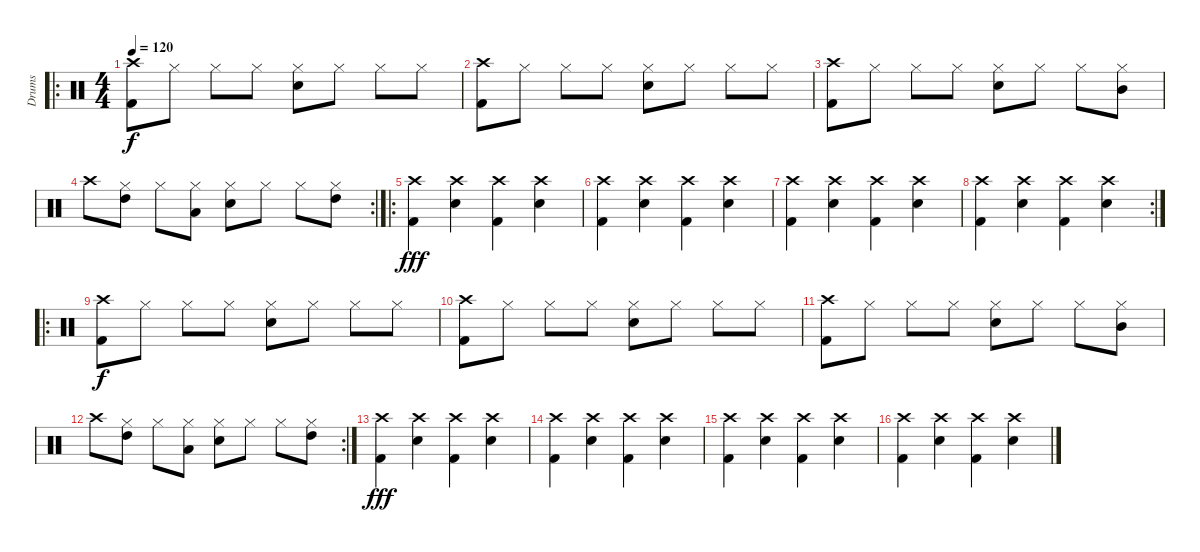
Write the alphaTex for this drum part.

\track ("Drums" "Drums") {instrument percussion}
\staff {score}
\articulation defaults
\ro
\ts (4 4)
\tempo 120
\clef neutral
\ks c
("Crash high (hit)" "Kick (hit) 2").8{dy f} "Hi-Hat (closed)".8 "Hi-Hat (closed)".8 "Hi-Hat (closed)".8 ("Hi-Hat (closed)" "Electric Snare (hit)").8 "Hi-Hat (closed)".8 "Hi-Hat (closed)".8 "Hi-Hat (closed)".8 |
("Crash high (hit)" "Kick (hit) 2").8 "Hi-Hat (closed)".8 "Hi-Hat (closed)".8 "Hi-Hat (closed)".8 ("Hi-Hat (closed)" "Electric Snare (hit)").8 "Hi-Hat (closed)".8 "Hi-Hat (closed)".8 "Hi-Hat (closed)".8 |
("Crash high (hit)" "Kick (hit) 2").8 "Hi-Hat (closed)".8 "Hi-Hat (closed)".8 "Hi-Hat (closed)".8 ("Hi-Hat (closed)" "Electric Snare (hit)").8 "Hi-Hat (closed)".8 "Hi-Hat (closed)".8 ("Hi-Hat (closed)" "Mid Tom (hit)").8 |
\rc 2 "Crash high (hit)".8
("Hi-Hat (closed)" "High Tom (hit)").8 "Hi-Hat (closed)".8 ("Hi-Hat (closed)" "Low Tom (hit)").8 ("Hi-Hat (closed)" "Electric Snare (hit)").8 "Hi-Hat (closed)".8 "Hi-Hat (closed)".8 ("Hi-Hat (closed)" "High Tom (hit)").8 |
\ro
("Crash high (hit)" "Kick (hit) 2").4{dy fff volume 16} ("Crash high (hit)" "Electric Snare (hit)").4 ("Crash high (hit)" "Kick (hit) 2").4 ("Crash high (hit)" "Electric Snare (hit)").4 |
("Crash high (hit)" "Kick (hit) 2").4 ("Crash high (hit)" "Electric Snare (hit)").4 ("Crash high (hit)" "Kick (hit) 2").4 ("Crash high (hit)" "Electric Snare (hit)").4 |
("Crash high (hit)" "Kick (hit) 2").4 ("Crash high (hit)" "Electric Snare (hit)").4 ("Crash high (hit)" "Kick (hit) 2").4 ("Crash high (hit)" "Electric Snare (hit)").4 |
\rc 2
("Crash high (hit)" "Kick (hit) 2").4 ("Crash high (hit)" "Electric Snare (hit)").4 ("Crash high (hit)" "Kick (hit) 2").4 ("Crash high (hit)" "Electric Snare (hit)").4 |
\ro
("Crash high (hit)" "Kick (hit) 2").8{dy f} "Hi-Hat (closed)".8 "Hi-Hat (closed)".8 "Hi-Hat (closed)".8 ("Hi-Hat (closed)" "Electric Snare (hit)").8 "Hi-Hat (closed)".8 "Hi-Hat (closed)".8 "Hi-Hat (closed)".8 |
("Crash high (hit)" "Kick (hit) 2").8 "Hi-Hat (closed)".8 "Hi-Hat (closed)".8 "Hi-Hat (closed)".8 ("Hi-Hat (closed)" "Electric Snare (hit)").8 "Hi-Hat (closed)".8 "Hi-Hat (closed)".8 "Hi-Hat (closed)".8 |
("Crash high (hit)" "Kick (hit) 2").8 "Hi-Hat (closed)".8 "Hi-Hat (closed)".8 "Hi-Hat (closed)".8 ("Hi-Hat (closed)" "Electric Snare (hit)").8 "Hi-Hat (closed)".8 "Hi-Hat (closed)".8 ("Hi-Hat (closed)" "Mid Tom (hit)").8 |
\rc 2 "Crash high (hit)".8
("Hi-Hat (closed)" "High Tom (hit)").8 "Hi-Hat (closed)".8 ("Hi-Hat (closed)" "Low Tom (hit)").8 ("Hi-Hat (closed)" "Electric Snare (hit)").8 "Hi-Hat (closed)".8 "Hi-Hat (closed)".8 ("Hi-Hat (closed)" "High Tom (hit)").8 |
("Crash high (hit)" "Kick (hit) 2").4{dy fff volume 16} ("Crash high (hit)" "Electric Snare (hit)").4 ("Crash high (hit)" "Kick (hit) 2").4 ("Crash high (hit)" "Electric Snare (hit)").4 |
("Crash high (hit)" "Kick (hit) 2").4 ("Crash high (hit)" "Electric Snare (hit)").4 ("Crash high (hit)" "Kick (hit) 2").4 ("Crash high (hit)" "Electric Snare (hit)").4 |
("Crash high (hit)" "Kick (hit) 2").4 ("Crash high (hit)" "Electric Snare (hit)").4 ("Crash high (hit)" "Kick (hit) 2").4 ("Crash high (hit)" "Electric Snare (hit)").4 |
("Crash high (hit)" "Kick (hit) 2").4 ("Crash high (hit)" "Electric Snare (hit)").4 ("Crash high (hit)" "Kick (hit) 2").4 ("Crash high (hit)" "Electric Snare (hit)").4
